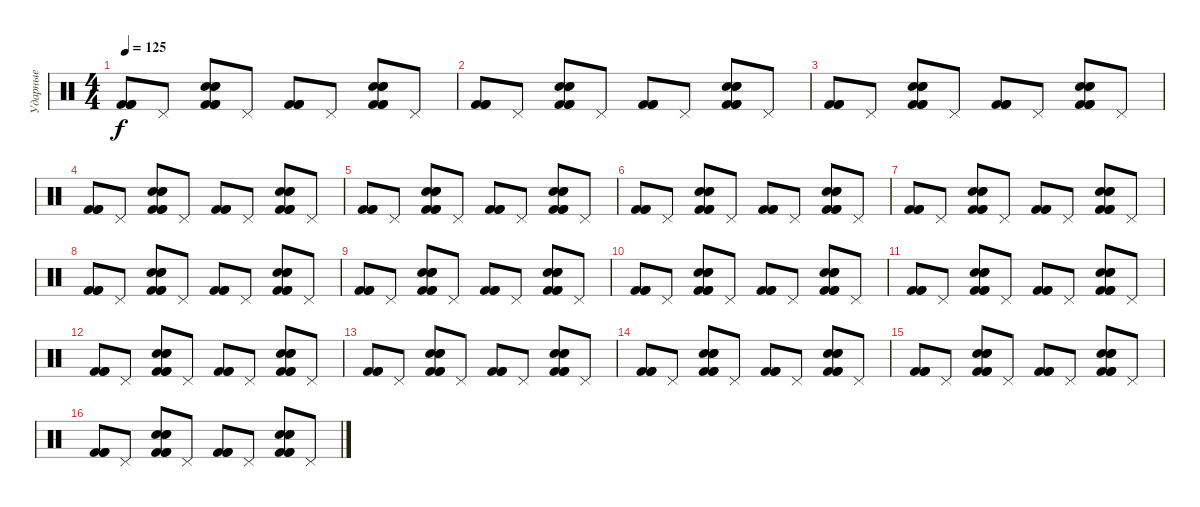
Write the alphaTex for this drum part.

\track ("Ударные" "Ударные") {instrument percussion}
\staff {score}
\articulation defaults
\ts (4 4)
\tempo 125
\clef neutral
\ks c
("Kick (hit) 2" "Kick (hit) 2" "Kick (hit) 2").8{dy f} "Pedal Hi-Hat (hit)".8 ("Snare (hit) 2" "Kick (hit) 2" "Snare (hit) 2" "Kick (hit) 2" "Snare (hit) 2" "Kick (hit) 2").8 "Pedal Hi-Hat (hit)".8 ("Kick (hit) 2" "Kick (hit) 2" "Kick (hit) 2").8 "Pedal Hi-Hat (hit)".8 ("Snare (hit) 2" "Kick (hit) 2" "Snare (hit) 2" "Kick (hit) 2" "Snare (hit) 2" "Kick (hit) 2").8 "Pedal Hi-Hat (hit)".8 |
("Kick (hit) 2" "Kick (hit) 2" "Kick (hit) 2").8 "Pedal Hi-Hat (hit)".8 ("Snare (hit) 2" "Kick (hit) 2" "Snare (hit) 2" "Kick (hit) 2" "Snare (hit) 2" "Kick (hit) 2").8 "Pedal Hi-Hat (hit)".8 ("Kick (hit) 2" "Kick (hit) 2" "Kick (hit) 2").8 "Pedal Hi-Hat (hit)".8 ("Snare (hit) 2" "Kick (hit) 2" "Snare (hit) 2" "Kick (hit) 2" "Snare (hit) 2" "Kick (hit) 2").8 "Pedal Hi-Hat (hit)".8 |
("Kick (hit) 2" "Kick (hit) 2" "Kick (hit) 2").8 "Pedal Hi-Hat (hit)".8 ("Snare (hit) 2" "Kick (hit) 2" "Snare (hit) 2" "Kick (hit) 2" "Snare (hit) 2" "Kick (hit) 2").8 "Pedal Hi-Hat (hit)".8 ("Kick (hit) 2" "Kick (hit) 2" "Kick (hit) 2").8 "Pedal Hi-Hat (hit)".8 ("Snare (hit) 2" "Kick (hit) 2" "Snare (hit) 2" "Kick (hit) 2" "Snare (hit) 2" "Kick (hit) 2").8 "Pedal Hi-Hat (hit)".8 |
("Kick (hit) 2" "Kick (hit) 2" "Kick (hit) 2").8 "Pedal Hi-Hat (hit)".8 ("Snare (hit) 2" "Kick (hit) 2" "Snare (hit) 2" "Kick (hit) 2" "Snare (hit) 2" "Kick (hit) 2").8 "Pedal Hi-Hat (hit)".8 ("Kick (hit) 2" "Kick (hit) 2" "Kick (hit) 2").8 "Pedal Hi-Hat (hit)".8 ("Snare (hit) 2" "Kick (hit) 2" "Snare (hit) 2" "Kick (hit) 2" "Snare (hit) 2" "Kick (hit) 2").8 "Pedal Hi-Hat (hit)".8 |
("Kick (hit) 2" "Kick (hit) 2" "Kick (hit) 2").8 "Pedal Hi-Hat (hit)".8 ("Snare (hit) 2" "Kick (hit) 2" "Snare (hit) 2" "Kick (hit) 2" "Snare (hit) 2" "Kick (hit) 2").8 "Pedal Hi-Hat (hit)".8 ("Kick (hit) 2" "Kick (hit) 2" "Kick (hit) 2").8 "Pedal Hi-Hat (hit)".8 ("Snare (hit) 2" "Kick (hit) 2" "Snare (hit) 2" "Kick (hit) 2" "Snare (hit) 2" "Kick (hit) 2").8 "Pedal Hi-Hat (hit)".8 |
("Kick (hit) 2" "Kick (hit) 2" "Kick (hit) 2").8 "Pedal Hi-Hat (hit)".8 ("Snare (hit) 2" "Kick (hit) 2" "Snare (hit) 2" "Kick (hit) 2" "Snare (hit) 2" "Kick (hit) 2").8 "Pedal Hi-Hat (hit)".8 ("Kick (hit) 2" "Kick (hit) 2" "Kick (hit) 2").8 "Pedal Hi-Hat (hit)".8 ("Snare (hit) 2" "Kick (hit) 2" "Snare (hit) 2" "Kick (hit) 2" "Snare (hit) 2" "Kick (hit) 2").8 "Pedal Hi-Hat (hit)".8 |
("Kick (hit) 2" "Kick (hit) 2" "Kick (hit) 2").8 "Pedal Hi-Hat (hit)".8 ("Snare (hit) 2" "Kick (hit) 2" "Snare (hit) 2" "Kick (hit) 2" "Snare (hit) 2" "Kick (hit) 2").8 "Pedal Hi-Hat (hit)".8 ("Kick (hit) 2" "Kick (hit) 2" "Kick (hit) 2").8 "Pedal Hi-Hat (hit)".8 ("Snare (hit) 2" "Kick (hit) 2" "Snare (hit) 2" "Kick (hit) 2" "Snare (hit) 2" "Kick (hit) 2").8 "Pedal Hi-Hat (hit)".8 |
("Kick (hit) 2" "Kick (hit) 2" "Kick (hit) 2").8 "Pedal Hi-Hat (hit)".8 ("Snare (hit) 2" "Kick (hit) 2" "Snare (hit) 2" "Kick (hit) 2" "Snare (hit) 2" "Kick (hit) 2").8 "Pedal Hi-Hat (hit)".8 ("Kick (hit) 2" "Kick (hit) 2" "Kick (hit) 2").8 "Pedal Hi-Hat (hit)".8 ("Snare (hit) 2" "Kick (hit) 2" "Snare (hit) 2" "Kick (hit) 2" "Snare (hit) 2" "Kick (hit) 2").8 "Pedal Hi-Hat (hit)".8 |
("Kick (hit) 2" "Kick (hit) 2" "Kick (hit) 2").8 "Pedal Hi-Hat (hit)".8 ("Snare (hit) 2" "Kick (hit) 2" "Snare (hit) 2" "Kick (hit) 2" "Snare (hit) 2" "Kick (hit) 2").8 "Pedal Hi-Hat (hit)".8 ("Kick (hit) 2" "Kick (hit) 2" "Kick (hit) 2").8 "Pedal Hi-Hat (hit)".8 ("Snare (hit) 2" "Kick (hit) 2" "Snare (hit) 2" "Kick (hit) 2" "Snare (hit) 2" "Kick (hit) 2").8 "Pedal Hi-Hat (hit)".8 |
("Kick (hit) 2" "Kick (hit) 2" "Kick (hit) 2").8 "Pedal Hi-Hat (hit)".8 ("Snare (hit) 2" "Kick (hit) 2" "Snare (hit) 2" "Kick (hit) 2" "Snare (hit) 2" "Kick (hit) 2").8 "Pedal Hi-Hat (hit)".8 ("Kick (hit) 2" "Kick (hit) 2" "Kick (hit) 2").8 "Pedal Hi-Hat (hit)".8 ("Snare (hit) 2" "Kick (hit) 2" "Snare (hit) 2" "Kick (hit) 2" "Snare (hit) 2" "Kick (hit) 2").8 "Pedal Hi-Hat (hit)".8 |
("Kick (hit) 2" "Kick (hit) 2" "Kick (hit) 2").8 "Pedal Hi-Hat (hit)".8 ("Snare (hit) 2" "Kick (hit) 2" "Snare (hit) 2" "Kick (hit) 2" "Snare (hit) 2" "Kick (hit) 2").8 "Pedal Hi-Hat (hit)".8 ("Kick (hit) 2" "Kick (hit) 2" "Kick (hit) 2").8 "Pedal Hi-Hat (hit)".8 ("Snare (hit) 2" "Kick (hit) 2" "Snare (hit) 2" "Kick (hit) 2" "Snare (hit) 2" "Kick (hit) 2").8 "Pedal Hi-Hat (hit)".8 |
("Kick (hit) 2" "Kick (hit) 2" "Kick (hit) 2").8 "Pedal Hi-Hat (hit)".8 ("Snare (hit) 2" "Kick (hit) 2" "Snare (hit) 2" "Kick (hit) 2" "Snare (hit) 2" "Kick (hit) 2").8 "Pedal Hi-Hat (hit)".8 ("Kick (hit) 2" "Kick (hit) 2" "Kick (hit) 2").8 "Pedal Hi-Hat (hit)".8 ("Snare (hit) 2" "Kick (hit) 2" "Snare (hit) 2" "Kick (hit) 2" "Snare (hit) 2" "Kick (hit) 2").8 "Pedal Hi-Hat (hit)".8 |
("Kick (hit) 2" "Kick (hit) 2" "Kick (hit) 2").8 "Pedal Hi-Hat (hit)".8 ("Snare (hit) 2" "Kick (hit) 2" "Snare (hit) 2" "Kick (hit) 2" "Snare (hit) 2" "Kick (hit) 2").8 "Pedal Hi-Hat (hit)".8 ("Kick (hit) 2" "Kick (hit) 2" "Kick (hit) 2").8 "Pedal Hi-Hat (hit)".8 ("Snare (hit) 2" "Kick (hit) 2" "Snare (hit) 2" "Kick (hit) 2" "Snare (hit) 2" "Kick (hit) 2").8 "Pedal Hi-Hat (hit)".8 |
("Kick (hit) 2" "Kick (hit) 2" "Kick (hit) 2").8 "Pedal Hi-Hat (hit)".8 ("Snare (hit) 2" "Kick (hit) 2" "Snare (hit) 2" "Kick (hit) 2" "Snare (hit) 2" "Kick (hit) 2").8 "Pedal Hi-Hat (hit)".8 ("Kick (hit) 2" "Kick (hit) 2" "Kick (hit) 2").8 "Pedal Hi-Hat (hit)".8 ("Snare (hit) 2" "Kick (hit) 2" "Snare (hit) 2" "Kick (hit) 2" "Snare (hit) 2" "Kick (hit) 2").8 "Pedal Hi-Hat (hit)".8 |
("Kick (hit) 2" "Kick (hit) 2" "Kick (hit) 2").8 "Pedal Hi-Hat (hit)".8 ("Snare (hit) 2" "Kick (hit) 2" "Snare (hit) 2" "Kick (hit) 2" "Snare (hit) 2" "Kick (hit) 2").8 "Pedal Hi-Hat (hit)".8 ("Kick (hit) 2" "Kick (hit) 2" "Kick (hit) 2").8 "Pedal Hi-Hat (hit)".8 ("Snare (hit) 2" "Kick (hit) 2" "Snare (hit) 2" "Kick (hit) 2" "Snare (hit) 2" "Kick (hit) 2").8 "Pedal Hi-Hat (hit)".8 |
("Kick (hit) 2" "Kick (hit) 2" "Kick (hit) 2").8 "Pedal Hi-Hat (hit)".8 ("Snare (hit) 2" "Kick (hit) 2" "Snare (hit) 2" "Kick (hit) 2" "Snare (hit) 2" "Kick (hit) 2").8 "Pedal Hi-Hat (hit)".8 ("Kick (hit) 2" "Kick (hit) 2" "Kick (hit) 2").8 "Pedal Hi-Hat (hit)".8 ("Snare (hit) 2" "Kick (hit) 2" "Snare (hit) 2" "Kick (hit) 2" "Snare (hit) 2" "Kick (hit) 2").8 "Pedal Hi-Hat (hit)".8
